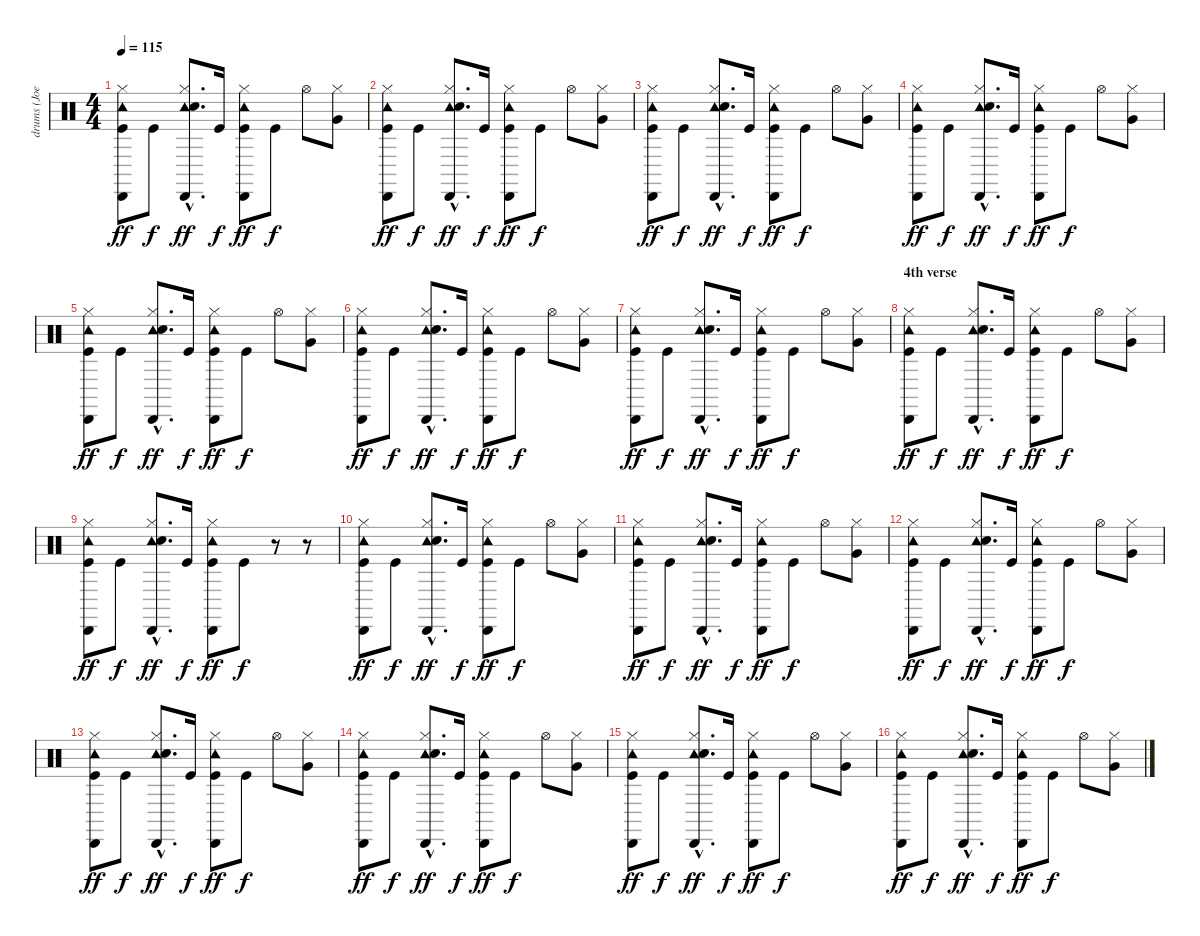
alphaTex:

\track ("drums (Joey Castillo)" "drums (Joe") {instrument percussion}
\staff {score}
\articulation defaults
\ts (4 4)
\tempo 115
\clef neutral
\ks c
("Tambourine (hit)" "Cabasa (hit)" "Kick (hit)" "Hi-Hat (closed)").8{dy ff} "Kick (hit)".8{dy f} ("Tambourine (hit)"{hac} "Cabasa (hit)"{hac} "Electric Snare (hit)"{hac} "Hi-Hat (closed)"{hac}).8{d dy ff} "Kick (hit)".16{dy f} ("Tambourine (hit)" "Cabasa (hit)" "Kick (hit)" "Hi-Hat (closed)").8{dy ff} "Kick (hit)".8{dy f} "Hi-Hat (open)".8 ("Very Low Tom (hit)" "Hi-Hat (closed)").8 |
("Tambourine (hit)" "Cabasa (hit)" "Kick (hit)" "Hi-Hat (closed)").8{dy ff} "Kick (hit)".8{dy f} ("Tambourine (hit)"{hac} "Cabasa (hit)"{hac} "Electric Snare (hit)"{hac} "Hi-Hat (closed)"{hac}).8{d dy ff} "Kick (hit)".16{dy f} ("Tambourine (hit)" "Cabasa (hit)" "Kick (hit)" "Hi-Hat (closed)").8{dy ff} "Kick (hit)".8{dy f} "Hi-Hat (open)".8 ("Very Low Tom (hit)" "Hi-Hat (closed)").8 |
("Tambourine (hit)" "Cabasa (hit)" "Kick (hit)" "Hi-Hat (closed)").8{dy ff} "Kick (hit)".8{dy f} ("Tambourine (hit)"{hac} "Cabasa (hit)"{hac} "Electric Snare (hit)"{hac} "Hi-Hat (closed)"{hac}).8{d dy ff} "Kick (hit)".16{dy f} ("Tambourine (hit)" "Cabasa (hit)" "Kick (hit)" "Hi-Hat (closed)").8{dy ff} "Kick (hit)".8{dy f} "Hi-Hat (open)".8 ("Very Low Tom (hit)" "Hi-Hat (closed)").8 |
("Tambourine (hit)" "Cabasa (hit)" "Kick (hit)" "Hi-Hat (closed)").8{dy ff} "Kick (hit)".8{dy f} ("Tambourine (hit)"{hac} "Cabasa (hit)"{hac} "Electric Snare (hit)"{hac} "Hi-Hat (closed)"{hac}).8{d dy ff} "Kick (hit)".16{dy f} ("Tambourine (hit)" "Cabasa (hit)" "Kick (hit)" "Hi-Hat (closed)").8{dy ff} "Kick (hit)".8{dy f} "Hi-Hat (open)".8 ("Very Low Tom (hit)" "Hi-Hat (closed)").8 |
("Tambourine (hit)" "Cabasa (hit)" "Kick (hit)" "Hi-Hat (closed)").8{dy ff} "Kick (hit)".8{dy f} ("Tambourine (hit)"{hac} "Cabasa (hit)"{hac} "Electric Snare (hit)"{hac} "Hi-Hat (closed)"{hac}).8{d dy ff} "Kick (hit)".16{dy f} ("Tambourine (hit)" "Cabasa (hit)" "Kick (hit)" "Hi-Hat (closed)").8{dy ff} "Kick (hit)".8{dy f} "Hi-Hat (open)".8 ("Very Low Tom (hit)" "Hi-Hat (closed)").8 |
\section ("" "")
("Tambourine (hit)" "Cabasa (hit)" "Kick (hit)" "Hi-Hat (closed)").8{dy ff} "Kick (hit)".8{dy f} ("Tambourine (hit)"{hac} "Cabasa (hit)"{hac} "Electric Snare (hit)"{hac} "Hi-Hat (closed)"{hac}).8{d dy ff} "Kick (hit)".16{dy f} ("Tambourine (hit)" "Cabasa (hit)" "Kick (hit)" "Hi-Hat (closed)").8{dy ff} "Kick (hit)".8{dy f} "Hi-Hat (open)".8 ("Very Low Tom (hit)" "Hi-Hat (closed)").8 |
("Tambourine (hit)" "Cabasa (hit)" "Kick (hit)" "Hi-Hat (closed)").8{dy ff} "Kick (hit)".8{dy f} ("Tambourine (hit)"{hac} "Cabasa (hit)"{hac} "Electric Snare (hit)"{hac} "Hi-Hat (closed)"{hac}).8{d dy ff} "Kick (hit)".16{dy f} ("Tambourine (hit)" "Cabasa (hit)" "Kick (hit)" "Hi-Hat (closed)").8{dy ff} "Kick (hit)".8{dy f} "Hi-Hat (open)".8 ("Very Low Tom (hit)" "Hi-Hat (closed)").8 |
\section ("" "4th verse")
("Tambourine (hit)" "Cabasa (hit)" "Kick (hit)" "Hi-Hat (closed)").8{dy ff} "Kick (hit)".8{dy f} ("Tambourine (hit)"{hac} "Cabasa (hit)"{hac} "Electric Snare (hit)"{hac} "Hi-Hat (closed)"{hac}).8{d dy ff} "Kick (hit)".16{dy f} ("Tambourine (hit)" "Cabasa (hit)" "Kick (hit)" "Hi-Hat (closed)").8{dy ff} "Kick (hit)".8{dy f} "Hi-Hat (open)".8 ("Very Low Tom (hit)" "Hi-Hat (closed)").8 |
("Tambourine (hit)" "Cabasa (hit)" "Kick (hit)" "Hi-Hat (closed)").8{dy ff} "Kick (hit)".8{dy f} ("Tambourine (hit)"{hac} "Cabasa (hit)"{hac} "Electric Snare (hit)"{hac} "Hi-Hat (closed)"{hac}).8{d dy ff} "Kick (hit)".16{dy f} ("Tambourine (hit)" "Cabasa (hit)" "Kick (hit)" "Hi-Hat (closed)").8{dy ff} "Kick (hit)".8{dy f} r.8 r.8 |
("Tambourine (hit)" "Cabasa (hit)" "Kick (hit)" "Hi-Hat (closed)").8{dy ff} "Kick (hit)".8{dy f} ("Tambourine (hit)"{hac} "Cabasa (hit)"{hac} "Electric Snare (hit)"{hac} "Hi-Hat (closed)"{hac}).8{d dy ff} "Kick (hit)".16{dy f} ("Tambourine (hit)" "Cabasa (hit)" "Kick (hit)" "Hi-Hat (closed)").8{dy ff} "Kick (hit)".8{dy f} "Hi-Hat (open)".8 ("Very Low Tom (hit)" "Hi-Hat (closed)").8 |
("Tambourine (hit)" "Cabasa (hit)" "Kick (hit)" "Hi-Hat (closed)").8{dy ff} "Kick (hit)".8{dy f} ("Tambourine (hit)"{hac} "Cabasa (hit)"{hac} "Electric Snare (hit)"{hac} "Hi-Hat (closed)"{hac}).8{d dy ff} "Kick (hit)".16{dy f} ("Tambourine (hit)" "Cabasa (hit)" "Kick (hit)" "Hi-Hat (closed)").8{dy ff} "Kick (hit)".8{dy f} "Hi-Hat (open)".8 ("Very Low Tom (hit)" "Hi-Hat (closed)").8 |
("Tambourine (hit)" "Cabasa (hit)" "Kick (hit)" "Hi-Hat (closed)").8{dy ff} "Kick (hit)".8{dy f} ("Tambourine (hit)"{hac} "Cabasa (hit)"{hac} "Electric Snare (hit)"{hac} "Hi-Hat (closed)"{hac}).8{d dy ff} "Kick (hit)".16{dy f} ("Tambourine (hit)" "Cabasa (hit)" "Kick (hit)" "Hi-Hat (closed)").8{dy ff} "Kick (hit)".8{dy f} "Hi-Hat (open)".8 ("Very Low Tom (hit)" "Hi-Hat (closed)").8 |
("Tambourine (hit)" "Cabasa (hit)" "Kick (hit)" "Hi-Hat (closed)").8{dy ff} "Kick (hit)".8{dy f} ("Tambourine (hit)"{hac} "Cabasa (hit)"{hac} "Electric Snare (hit)"{hac} "Hi-Hat (closed)"{hac}).8{d dy ff} "Kick (hit)".16{dy f} ("Tambourine (hit)" "Cabasa (hit)" "Kick (hit)" "Hi-Hat (closed)").8{dy ff} "Kick (hit)".8{dy f} "Hi-Hat (open)".8 ("Very Low Tom (hit)" "Hi-Hat (closed)").8 |
("Tambourine (hit)" "Cabasa (hit)" "Kick (hit)" "Hi-Hat (closed)").8{dy ff} "Kick (hit)".8{dy f} ("Tambourine (hit)"{hac} "Cabasa (hit)"{hac} "Electric Snare (hit)"{hac} "Hi-Hat (closed)"{hac}).8{d dy ff} "Kick (hit)".16{dy f} ("Tambourine (hit)" "Cabasa (hit)" "Kick (hit)" "Hi-Hat (closed)").8{dy ff} "Kick (hit)".8{dy f} "Hi-Hat (open)".8 ("Very Low Tom (hit)" "Hi-Hat (closed)").8 |
("Tambourine (hit)" "Cabasa (hit)" "Kick (hit)" "Hi-Hat (closed)").8{dy ff} "Kick (hit)".8{dy f} ("Tambourine (hit)"{hac} "Cabasa (hit)"{hac} "Electric Snare (hit)"{hac} "Hi-Hat (closed)"{hac}).8{d dy ff} "Kick (hit)".16{dy f} ("Tambourine (hit)" "Cabasa (hit)" "Kick (hit)" "Hi-Hat (closed)").8{dy ff} "Kick (hit)".8{dy f} "Hi-Hat (open)".8 ("Very Low Tom (hit)" "Hi-Hat (closed)").8 |
\section ("" "")
("Tambourine (hit)" "Cabasa (hit)" "Kick (hit)" "Hi-Hat (closed)").8{dy ff} "Kick (hit)".8{dy f} ("Tambourine (hit)"{hac} "Cabasa (hit)"{hac} "Electric Snare (hit)"{hac} "Hi-Hat (closed)"{hac}).8{d dy ff} "Kick (hit)".16{dy f} ("Tambourine (hit)" "Cabasa (hit)" "Kick (hit)" "Hi-Hat (closed)").8{dy ff} "Kick (hit)".8{dy f} "Hi-Hat (open)".8 ("Very Low Tom (hit)" "Hi-Hat (closed)").8
